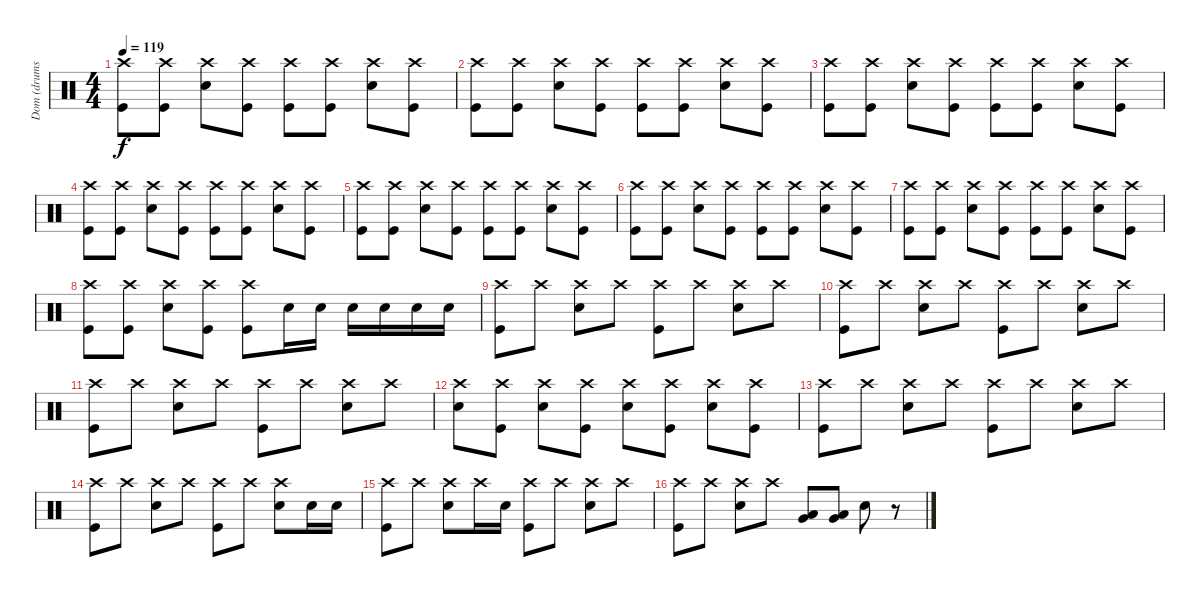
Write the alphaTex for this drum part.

\track ("Dom (drums)" "Dom (drums") {instrument percussion}
\staff {score}
\articulation defaults
\ts (4 4)
\tempo 119
\clef neutral
\ks c
("Crash high (hit)" "Kick (hit)").8{dy f} ("Crash high (hit)" "Kick (hit)").8 ("Crash high (hit)" "Snare (hit) 2").8 ("Crash high (hit)" "Kick (hit)").8 ("Crash high (hit)" "Kick (hit)").8 ("Crash high (hit)" "Kick (hit)").8 ("Crash high (hit)" "Snare (hit) 2").8 ("Crash high (hit)" "Kick (hit)").8 |
("Crash high (hit)" "Kick (hit)").8 ("Crash high (hit)" "Kick (hit)").8 ("Crash high (hit)" "Snare (hit) 2").8 ("Crash high (hit)" "Kick (hit)").8 ("Crash high (hit)" "Kick (hit)").8 ("Crash high (hit)" "Kick (hit)").8 ("Crash high (hit)" "Snare (hit) 2").8 ("Crash high (hit)" "Kick (hit)").8 |
("Crash high (hit)" "Kick (hit)").8 ("Crash high (hit)" "Kick (hit)").8 ("Crash high (hit)" "Snare (hit) 2").8 ("Crash high (hit)" "Kick (hit)").8 ("Crash high (hit)" "Kick (hit)").8 ("Crash high (hit)" "Kick (hit)").8 ("Crash high (hit)" "Snare (hit) 2").8 ("Crash high (hit)" "Kick (hit)").8 |
("Crash high (hit)" "Kick (hit)").8 ("Crash high (hit)" "Kick (hit)").8 ("Crash high (hit)" "Snare (hit) 2").8 ("Crash high (hit)" "Kick (hit)").8 ("Crash high (hit)" "Kick (hit)").8 ("Crash high (hit)" "Kick (hit)").8 ("Crash high (hit)" "Snare (hit) 2").8 ("Crash high (hit)" "Kick (hit)").8 |
("Crash high (hit)" "Kick (hit)").8 ("Crash high (hit)" "Kick (hit)").8 ("Crash high (hit)" "Snare (hit) 2").8 ("Crash high (hit)" "Kick (hit)").8 ("Crash high (hit)" "Kick (hit)").8 ("Crash high (hit)" "Kick (hit)").8 ("Crash high (hit)" "Snare (hit) 2").8 ("Crash high (hit)" "Kick (hit)").8 |
("Crash high (hit)" "Kick (hit)").8 ("Crash high (hit)" "Kick (hit)").8 ("Crash high (hit)" "Snare (hit) 2").8 ("Crash high (hit)" "Kick (hit)").8 ("Crash high (hit)" "Kick (hit)").8 ("Crash high (hit)" "Kick (hit)").8 ("Crash high (hit)" "Snare (hit) 2").8 ("Crash high (hit)" "Kick (hit)").8 |
("Crash high (hit)" "Kick (hit)").8 ("Crash high (hit)" "Kick (hit)").8 ("Crash high (hit)" "Snare (hit) 2").8 ("Crash high (hit)" "Kick (hit)").8 ("Crash high (hit)" "Kick (hit)").8 ("Crash high (hit)" "Kick (hit)").8 ("Crash high (hit)" "Snare (hit) 2").8 ("Crash high (hit)" "Kick (hit)").8 |
("Crash high (hit)" "Kick (hit)").8 ("Crash high (hit)" "Kick (hit)").8 ("Crash high (hit)" "Snare (hit) 2").8 ("Crash high (hit)" "Kick (hit)").8 ("Crash high (hit)" "Kick (hit)").8 "Snare (hit) 2".16 "Snare (hit) 2".16 "Snare (hit) 2".16 "Snare (hit) 2".16 "Snare (hit) 2".16 "Snare (hit) 2".16 |
("Crash high (hit)" "Kick (hit)").8 "Crash high (hit)".8 ("Crash high (hit)" "Snare (hit) 2").8 "Crash high (hit)".8 ("Crash high (hit)" "Kick (hit)").8 "Crash high (hit)".8 ("Crash high (hit)" "Snare (hit) 2").8 "Crash high (hit)".8 |
("Crash high (hit)" "Kick (hit)").8 "Crash high (hit)".8 ("Crash high (hit)" "Snare (hit) 2").8 "Crash high (hit)".8 ("Crash high (hit)" "Kick (hit)").8 "Crash high (hit)".8 ("Crash high (hit)" "Snare (hit) 2").8 "Crash high (hit)".8 |
("Crash high (hit)" "Kick (hit)").8 "Crash high (hit)".8 ("Crash high (hit)" "Snare (hit) 2").8 "Crash high (hit)".8 ("Crash high (hit)" "Kick (hit)").8 "Crash high (hit)".8 ("Crash high (hit)" "Snare (hit) 2").8 "Crash high (hit)".8 |
("Crash high (hit)" "Snare (hit) 2").8 ("Crash high (hit)" "Kick (hit)").8 ("Crash high (hit)" "Snare (hit) 2").8 ("Crash high (hit)" "Kick (hit)").8 ("Crash high (hit)" "Snare (hit) 2").8 ("Crash high (hit)" "Kick (hit)").8 ("Crash high (hit)" "Snare (hit) 2").8 ("Crash high (hit)" "Kick (hit)").8 |
("Crash high (hit)" "Kick (hit)").8 "Crash high (hit)".8 ("Crash high (hit)" "Snare (hit) 2").8 "Crash high (hit)".8 ("Crash high (hit)" "Kick (hit)").8 "Crash high (hit)".8 ("Crash high (hit)" "Snare (hit) 2").8 "Crash high (hit)".8 |
("Crash high (hit)" "Kick (hit)").8 "Crash high (hit)".8 ("Crash high (hit)" "Snare (hit) 2").8 "Crash high (hit)".8 ("Crash high (hit)" "Kick (hit)").8 "Crash high (hit)".8 ("Crash high (hit)" "Snare (hit) 2").8 "Snare (hit) 2".16 "Snare (hit) 2".16 |
("Crash high (hit)" "Kick (hit)").8 "Crash high (hit)".8 ("Crash high (hit)" "Snare (hit) 2").8 "Crash high (hit)".16 "Snare (hit) 2".16 ("Crash high (hit)" "Kick (hit)").8 "Crash high (hit)".8 ("Crash high (hit)" "Snare (hit) 2").8 "Crash high (hit)".8 |
("Crash high (hit)" "Kick (hit)").8 "Crash high (hit)".8 ("Crash high (hit)" "Snare (hit) 2").8 "Crash high (hit)".8 ("Low Tom (hit)" "Very Low Tom (hit)").8 ("Low Tom (hit)" "Very Low Tom (hit)").8 "Snare (hit) 2".8 r.8
